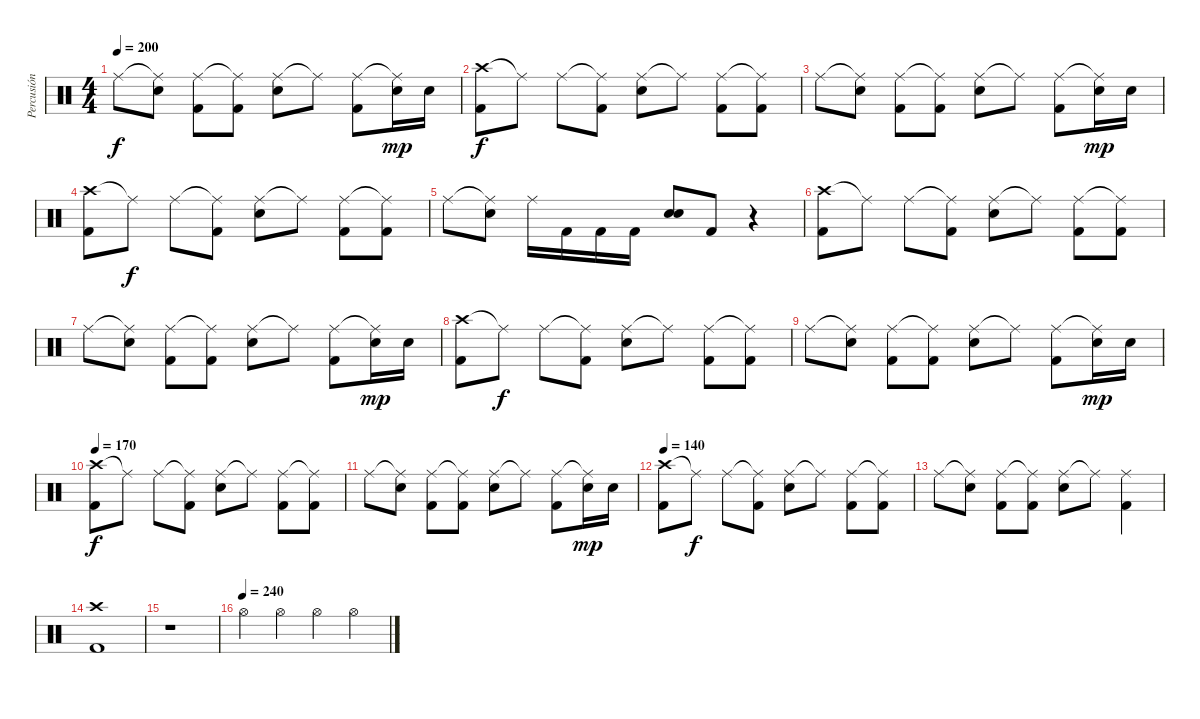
\track ("Percusión" "Percusión") {instrument percussion}
\staff {score}
\articulation defaults
\ts (4 4)
\tempo 200
\clef neutral
\ks c "Ride (middle)".8{dy f}
("Ride (middle)"{t} "Snare (hit) 2").8 ("Ride (middle)" "Kick (hit) 2").8 ("Ride (middle)"{t} "Kick (hit) 2").8 ("Ride (middle)" "Snare (hit) 2").8 "Ride (middle)"{t}.8 ("Ride (middle)" "Kick (hit) 2").8 ("Ride (middle)"{t} "Snare (hit) 2").16{dy mp} "Snare (hit) 2".16 |
("Crash high (hit)" "Kick (hit) 2").8{dy f} "Ride (middle)"{t}.8 "Ride (middle)".8 ("Ride (middle)"{t} "Kick (hit) 2").8 ("Ride (middle)" "Snare (hit) 2").8 "Ride (middle)"{t}.8 ("Ride (middle)" "Kick (hit) 2").8 ("Ride (middle)"{t} "Kick (hit) 2").8 |
"Ride (middle)".8 ("Ride (middle)"{t} "Snare (hit) 2").8 ("Ride (middle)" "Kick (hit) 2").8 ("Ride (middle)"{t} "Kick (hit) 2").8 ("Ride (middle)" "Snare (hit) 2").8 "Ride (middle)"{t}.8 ("Ride (middle)" "Kick (hit) 2").8 ("Ride (middle)"{t} "Snare (hit) 2").16{dy mp} "Snare (hit) 2".16 |
("Crash high (hit)" "Kick (hit) 2").8 "Ride (middle)"{t}.8{dy f} "Ride (middle)".8 ("Ride (middle)"{t} "Kick (hit) 2").8 ("Ride (middle)" "Snare (hit) 2").8 "Ride (middle)"{t}.8 ("Ride (middle)" "Kick (hit) 2").8 ("Ride (middle)"{t} "Kick (hit) 2").8 |
"Ride (middle)".8 ("Ride (middle)"{t} "Snare (hit) 2").8 "Ride (middle)".16 "Kick (hit) 2".16 "Kick (hit) 2".16 "Kick (hit) 2".16 ("Snare (hit) 2" "Snare (hit) 2").8 "Kick (hit) 2".8 r.4 |
("Crash high (hit)" "Kick (hit) 2").8 "Ride (middle)"{t}.8 "Ride (middle)".8 ("Ride (middle)"{t} "Kick (hit) 2").8 ("Ride (middle)" "Snare (hit) 2").8 "Ride (middle)"{t}.8 ("Ride (middle)" "Kick (hit) 2").8 ("Ride (middle)"{t} "Kick (hit) 2").8 |
"Ride (middle)".8 ("Ride (middle)"{t} "Snare (hit) 2").8 ("Ride (middle)" "Kick (hit) 2").8 ("Ride (middle)"{t} "Kick (hit) 2").8 ("Ride (middle)" "Snare (hit) 2").8 "Ride (middle)"{t}.8 ("Ride (middle)" "Kick (hit) 2").8 ("Ride (middle)"{t} "Snare (hit) 2").16{dy mp} "Snare (hit) 2".16 |
("Crash high (hit)" "Kick (hit) 2").8 "Ride (middle)"{t}.8{dy f} "Ride (middle)".8 ("Ride (middle)"{t} "Kick (hit) 2").8 ("Ride (middle)" "Snare (hit) 2").8 "Ride (middle)"{t}.8 ("Ride (middle)" "Kick (hit) 2").8 ("Ride (middle)"{t} "Kick (hit) 2").8 |
"Ride (middle)".8 ("Ride (middle)"{t} "Snare (hit) 2").8 ("Ride (middle)" "Kick (hit) 2").8 ("Ride (middle)"{t} "Kick (hit) 2").8 ("Ride (middle)" "Snare (hit) 2").8 "Ride (middle)"{t}.8 ("Ride (middle)" "Kick (hit) 2").8 ("Ride (middle)"{t} "Snare (hit) 2").16{dy mp} "Snare (hit) 2".16 |
\tempo 170
("Crash high (hit)" "Kick (hit) 2").8{dy f} "Ride (middle)"{t}.8 "Ride (middle)".8 ("Ride (middle)"{t} "Kick (hit) 2").8 ("Ride (middle)" "Snare (hit) 2").8 "Ride (middle)"{t}.8 ("Ride (middle)" "Kick (hit) 2").8 ("Ride (middle)"{t} "Kick (hit) 2").8 |
"Ride (middle)".8 ("Ride (middle)"{t} "Snare (hit) 2").8 ("Ride (middle)" "Kick (hit) 2").8 ("Ride (middle)"{t} "Kick (hit) 2").8 ("Ride (middle)" "Snare (hit) 2").8 "Ride (middle)"{t}.8 ("Ride (middle)" "Kick (hit) 2").8 ("Ride (middle)"{t} "Snare (hit) 2").16{dy mp} "Snare (hit) 2".16 |
\tempo 140
("Crash high (hit)" "Kick (hit) 2").8 "Ride (middle)"{t}.8{dy f} "Ride (middle)".8 ("Ride (middle)"{t} "Kick (hit) 2").8 ("Ride (middle)" "Snare (hit) 2").8 "Ride (middle)"{t}.8 ("Ride (middle)" "Kick (hit) 2").8 ("Ride (middle)"{t} "Kick (hit) 2").8 |
"Ride (middle)".8 ("Ride (middle)"{t} "Snare (hit) 2").8 ("Ride (middle)" "Kick (hit) 2").8 ("Ride (middle)"{t} "Kick (hit) 2").8 ("Ride (middle)" "Snare (hit) 2").8 "Ride (middle)"{t}.8 ("Ride (middle)" "Kick (hit) 2").4 |
("Kick (hit) 2" "Crash high (hit)").1 |
r.1 |
\tempo (240)
"Hi-Hat (open)".4 "Hi-Hat (open)".4 "Hi-Hat (open)".4 "Hi-Hat (open)".4
